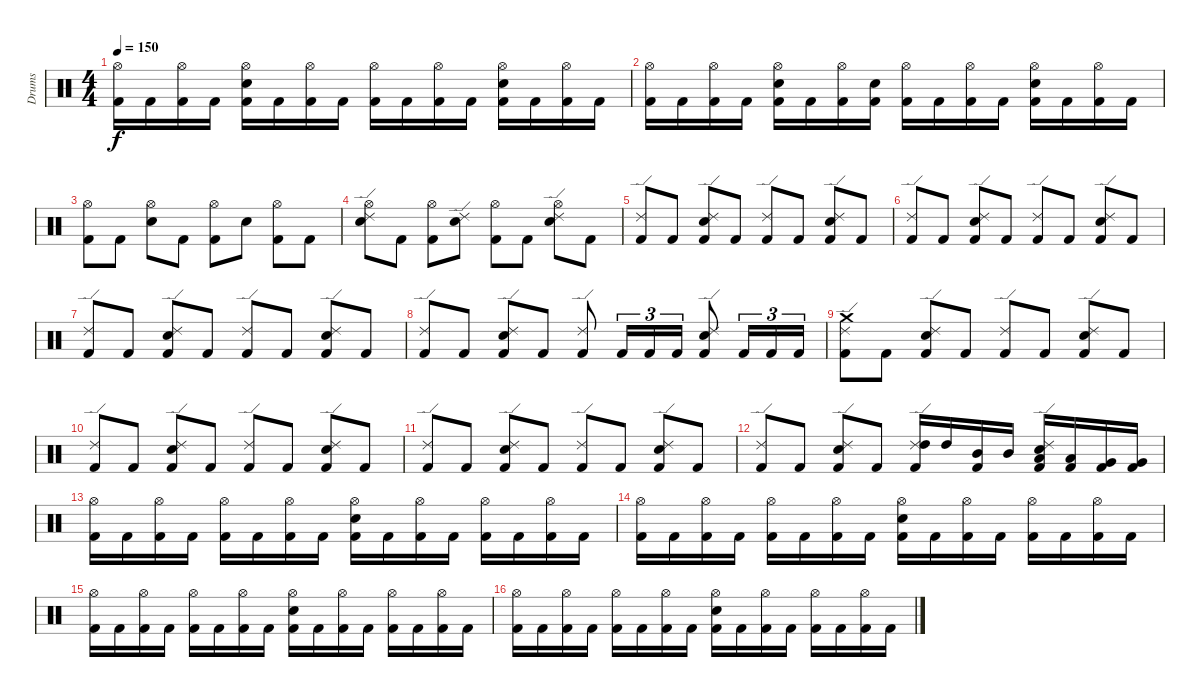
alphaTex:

\track ("Drums" "Drums") {instrument percussion}
\staff {score}
\articulation defaults
\ts (4 4)
\tempo 150
\clef neutral
\ks c
("Hi-Hat (open)" "Kick (hit) 2").16{dy f} "Kick (hit) 2".16 ("Hi-Hat (open)" "Kick (hit) 2").16 "Kick (hit) 2".16 ("Hi-Hat (open)" "Kick (hit) 2" "Snare (hit) 2").16 "Kick (hit) 2".16 ("Hi-Hat (open)" "Kick (hit) 2").16 "Kick (hit) 2".16 ("Hi-Hat (open)" "Kick (hit) 2").16 "Kick (hit) 2".16 ("Hi-Hat (open)" "Kick (hit) 2").16 "Kick (hit) 2".16 ("Hi-Hat (open)" "Kick (hit) 2" "Snare (hit) 2").16 "Kick (hit) 2".16 ("Hi-Hat (open)" "Kick (hit) 2").16 "Kick (hit) 2".16 |
("Hi-Hat (open)" "Kick (hit) 2").16 "Kick (hit) 2".16 ("Hi-Hat (open)" "Kick (hit) 2").16 "Kick (hit) 2".16 ("Hi-Hat (open)" "Kick (hit) 2" "Snare (hit) 2").16 "Kick (hit) 2".16 ("Hi-Hat (open)" "Kick (hit) 2").16 ("Kick (hit) 2" "Snare (hit) 2").16 ("Hi-Hat (open)" "Kick (hit) 2").16 "Kick (hit) 2".16 ("Hi-Hat (open)" "Kick (hit) 2").16 "Kick (hit) 2".16 ("Hi-Hat (open)" "Kick (hit) 2" "Snare (hit) 2").16 "Kick (hit) 2".16 ("Hi-Hat (open)" "Kick (hit) 2").16 "Kick (hit) 2".16 |
("Hi-Hat (open)" "Kick (hit) 2").8 "Kick (hit) 2".8 ("Hi-Hat (open)" "Snare (hit) 2").8 "Kick (hit) 2".8 ("Hi-Hat (open)" "Kick (hit) 2").8 "Snare (hit) 2".8 ("Hi-Hat (open)" "Kick (hit) 2").8 "Kick (hit) 2".8 |
("Hi-Hat (open)" "Snare (hit) 2" "Ride (edge) 2").8 "Kick (hit) 2".8 ("Hi-Hat (open)" "Kick (hit) 2").8 ("Snare (hit) 2" "Ride (edge) 2").8 ("Hi-Hat (open)" "Kick (hit) 2").8 "Kick (hit) 2".8 ("Hi-Hat (open)" "Snare (hit) 2" "Ride (edge) 2").8 "Kick (hit) 2".8 |
("Ride (edge) 2" "Kick (hit) 2").8 "Kick (hit) 2".8 ("Ride (edge) 2" "Kick (hit) 2" "Snare (hit) 2").8 "Kick (hit) 2".8 ("Ride (edge) 2" "Kick (hit) 2").8 "Kick (hit) 2".8 ("Ride (edge) 2" "Kick (hit) 2" "Snare (hit) 2").8 "Kick (hit) 2".8 |
("Ride (edge) 2" "Kick (hit) 2").8 "Kick (hit) 2".8 ("Ride (edge) 2" "Kick (hit) 2" "Snare (hit) 2").8 "Kick (hit) 2".8 ("Ride (edge) 2" "Kick (hit) 2").8 "Kick (hit) 2".8 ("Ride (edge) 2" "Kick (hit) 2" "Snare (hit) 2").8 "Kick (hit) 2".8 |
("Ride (edge) 2" "Kick (hit) 2").8 "Kick (hit) 2".8 ("Ride (edge) 2" "Kick (hit) 2" "Snare (hit) 2").8 "Kick (hit) 2".8 ("Ride (edge) 2" "Kick (hit) 2").8 "Kick (hit) 2".8 ("Ride (edge) 2" "Kick (hit) 2" "Snare (hit) 2").8 "Kick (hit) 2".8 |
("Ride (edge) 2" "Kick (hit) 2").8 "Kick (hit) 2".8 ("Ride (edge) 2" "Kick (hit) 2" "Snare (hit) 2").8 "Kick (hit) 2".8 ("Ride (edge) 2" "Kick (hit) 2").8 "Kick (hit) 2".16{tu (3 2)} "Kick (hit) 2".16{tu (3 2)} "Kick (hit) 2".16{tu (3 2)} ("Ride (edge) 2" "Kick (hit) 2" "Snare (hit) 2").8 "Kick (hit) 2".16{tu (3 2)} "Kick (hit) 2".16{tu (3 2)} "Kick (hit) 2".16{tu (3 2)} |
("Ride (edge) 2" "Kick (hit) 2" "Crash medium (hit)").8 "Kick (hit) 2".8 ("Ride (edge) 2" "Kick (hit) 2" "Snare (hit) 2").8 "Kick (hit) 2".8 ("Ride (edge) 2" "Kick (hit) 2").8 "Kick (hit) 2".8 ("Ride (edge) 2" "Kick (hit) 2" "Snare (hit) 2").8 "Kick (hit) 2".8 |
("Ride (edge) 2" "Kick (hit) 2").8 "Kick (hit) 2".8 ("Ride (edge) 2" "Kick (hit) 2" "Snare (hit) 2").8 "Kick (hit) 2".8 ("Ride (edge) 2" "Kick (hit) 2").8 "Kick (hit) 2".8 ("Ride (edge) 2" "Kick (hit) 2" "Snare (hit) 2").8 "Kick (hit) 2".8 |
("Ride (edge) 2" "Kick (hit) 2").8 "Kick (hit) 2".8 ("Ride (edge) 2" "Kick (hit) 2" "Snare (hit) 2").8 "Kick (hit) 2".8 ("Ride (edge) 2" "Kick (hit) 2").8 "Kick (hit) 2".8 ("Ride (edge) 2" "Kick (hit) 2" "Snare (hit) 2").8 "Kick (hit) 2".8 |
("Ride (edge) 2" "Kick (hit) 2").8 "Kick (hit) 2".8 ("Ride (edge) 2" "Kick (hit) 2" "Snare (hit) 2").8 "Kick (hit) 2".8 ("Ride (edge) 2" "Kick (hit) 2" "High Tom (hit)").16 "High Tom (hit)".16 ("Kick (hit) 2" "Mid Tom (hit)").16 "Mid Tom (hit)".16 ("Ride (edge) 2" "Snare (hit) 2" "Low Tom (hit)" "Kick (hit) 2").16 ("Low Tom (hit)" "Kick (hit) 2").16 ("Very Low Tom (hit)" "Kick (hit) 2").16 ("Very Low Tom (hit)" "Kick (hit) 2").16 |
("Hi-Hat (open)" "Kick (hit) 2").16 "Kick (hit) 2".16 ("Hi-Hat (open)" "Kick (hit) 2").16 "Kick (hit) 2".16 ("Hi-Hat (open)" "Kick (hit) 2").16 "Kick (hit) 2".16 ("Hi-Hat (open)" "Kick (hit) 2").16 "Kick (hit) 2".16 ("Hi-Hat (open)" "Kick (hit) 2" "Snare (hit) 2").16 "Kick (hit) 2".16 ("Hi-Hat (open)" "Kick (hit) 2").16 "Kick (hit) 2".16 ("Hi-Hat (open)" "Kick (hit) 2").16 "Kick (hit) 2".16 ("Hi-Hat (open)" "Kick (hit) 2").16 "Kick (hit) 2".16 |
("Hi-Hat (open)" "Kick (hit) 2").16 "Kick (hit) 2".16 ("Hi-Hat (open)" "Kick (hit) 2").16 "Kick (hit) 2".16 ("Hi-Hat (open)" "Kick (hit) 2").16 "Kick (hit) 2".16 ("Hi-Hat (open)" "Kick (hit) 2").16 "Kick (hit) 2".16 ("Hi-Hat (open)" "Kick (hit) 2" "Snare (hit) 2").16 "Kick (hit) 2".16 ("Hi-Hat (open)" "Kick (hit) 2").16 "Kick (hit) 2".16 ("Hi-Hat (open)" "Kick (hit) 2").16 "Kick (hit) 2".16 ("Hi-Hat (open)" "Kick (hit) 2").16 "Kick (hit) 2".16 |
("Hi-Hat (open)" "Kick (hit) 2").16 "Kick (hit) 2".16 ("Hi-Hat (open)" "Kick (hit) 2").16 "Kick (hit) 2".16 ("Hi-Hat (open)" "Kick (hit) 2").16 "Kick (hit) 2".16 ("Hi-Hat (open)" "Kick (hit) 2").16 "Kick (hit) 2".16 ("Hi-Hat (open)" "Kick (hit) 2" "Snare (hit) 2").16 "Kick (hit) 2".16 ("Hi-Hat (open)" "Kick (hit) 2").16 "Kick (hit) 2".16 ("Hi-Hat (open)" "Kick (hit) 2").16 "Kick (hit) 2".16 ("Hi-Hat (open)" "Kick (hit) 2").16 "Kick (hit) 2".16 |
("Hi-Hat (open)" "Kick (hit) 2").16 "Kick (hit) 2".16 ("Hi-Hat (open)" "Kick (hit) 2").16 "Kick (hit) 2".16 ("Hi-Hat (open)" "Kick (hit) 2").16 "Kick (hit) 2".16 ("Hi-Hat (open)" "Kick (hit) 2").16 "Kick (hit) 2".16 ("Hi-Hat (open)" "Kick (hit) 2" "Snare (hit) 2").16 "Kick (hit) 2".16 ("Hi-Hat (open)" "Kick (hit) 2").16 "Kick (hit) 2".16 ("Hi-Hat (open)" "Kick (hit) 2").16 "Kick (hit) 2".16 ("Hi-Hat (open)" "Kick (hit) 2").16 "Kick (hit) 2".16
